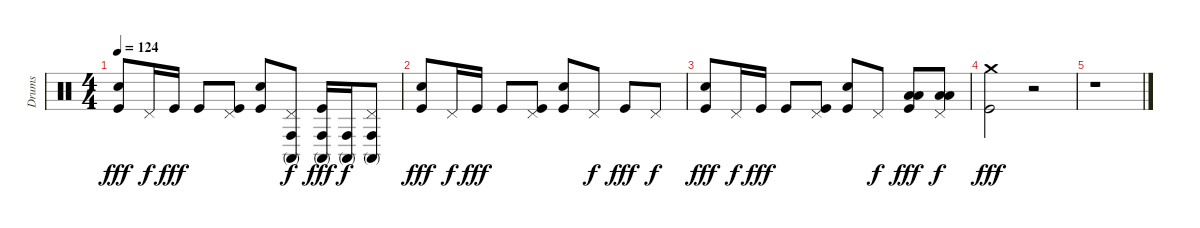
\track ("Drums" "Drums") {instrument percussion}
\staff {score}
\articulation defaults
\ts (4 4)
\tempo 124
\clef neutral
\ks c
("Kick (hit)" "Electric Snare (hit)").8{dy fff} "Pedal Hi-Hat (hit)".16{dy f} "Kick (hit)".16{dy fff} "Kick (hit)".8 ("Kick (hit)" "Pedal Hi-Hat (hit)").8 ("Kick (hit)" "Electric Snare (hit)").8 ("Pedal Hi-Hat (hit)" "Conga high (mute)" "Conga high (hit)").8{dy f} ("Kick (hit)" "Conga high (hit)" "Conga high (mute)").16{dy fff} ("Conga high (mute)" "Conga high (hit)").16{dy f} ("Pedal Hi-Hat (hit)" "Conga high (hit)" "Conga high (mute)").8 |
("Kick (hit)" "Electric Snare (hit)").8{dy fff} "Pedal Hi-Hat (hit)".16{dy f} "Kick (hit)".16{dy fff} "Kick (hit)".8 ("Kick (hit)" "Pedal Hi-Hat (hit)").8 ("Kick (hit)" "Electric Snare (hit)").8 "Pedal Hi-Hat (hit)".8{dy f} "Kick (hit)".8{dy fff} "Pedal Hi-Hat (hit)".8{dy f} |
("Kick (hit)" "Electric Snare (hit)").8{dy fff} "Pedal Hi-Hat (hit)".16{dy f} "Kick (hit)".16{dy fff} "Kick (hit)".8 ("Kick (hit)" "Pedal Hi-Hat (hit)").8 ("Kick (hit)" "Electric Snare (hit)").8 "Pedal Hi-Hat (hit)".8{dy f} ("Kick (hit)" "Low Tom (hit)" "Low Tom (hit)").8{dy fff} ("Pedal Hi-Hat (hit)" "Low Tom (hit)" "Low Tom (hit)").8{dy f} |
("Kick (hit)" "Crash medium (hit)").2{dy fff} r.2 |
r.1
